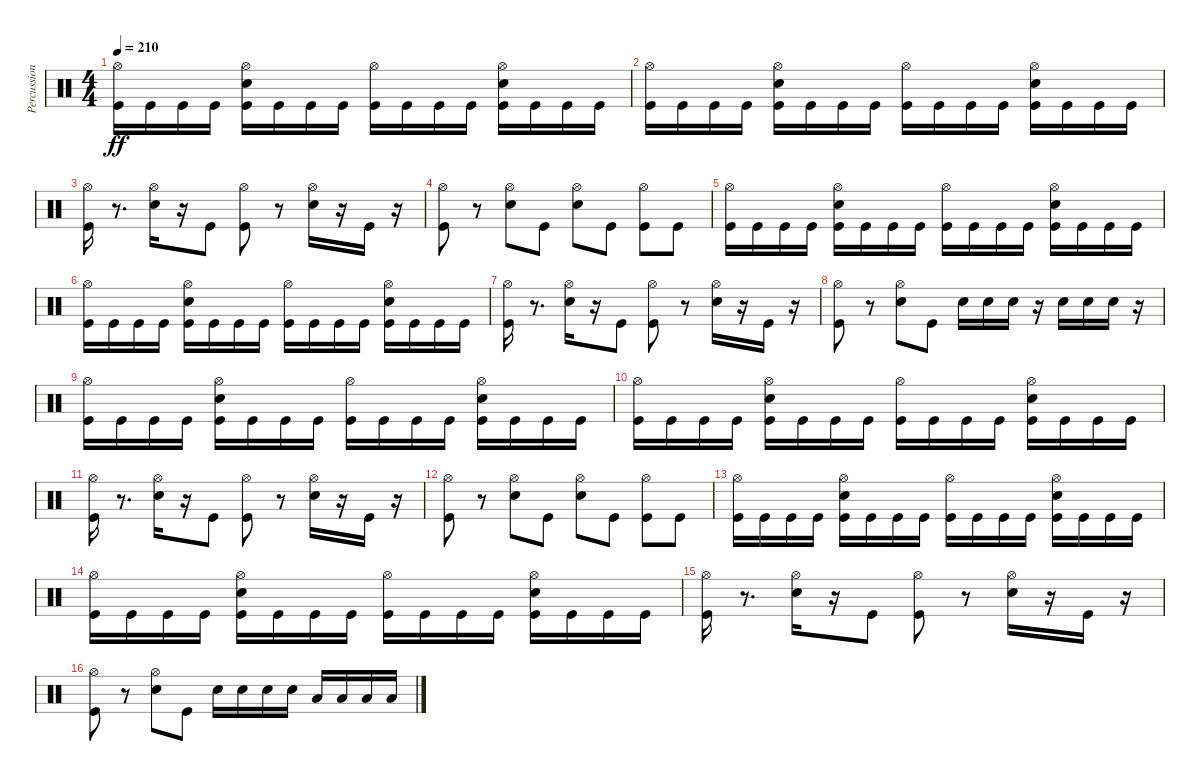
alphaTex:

\track ("Percussion" "Percussion") {instrument percussion}
\staff {score}
\articulation defaults
\ts (4 4)
\tempo 210
\clef neutral
\ks c
("Hi-Hat (open)" "Kick (hit)").16{dy ff} "Kick (hit)".16 "Kick (hit)".16 "Kick (hit)".16 ("Snare (hit) 2" "Hi-Hat (open)" "Kick (hit)").16 "Kick (hit)".16 "Kick (hit)".16 "Kick (hit)".16 ("Hi-Hat (open)" "Kick (hit)").16 "Kick (hit)".16 "Kick (hit)".16 "Kick (hit)".16 ("Snare (hit) 2" "Hi-Hat (open)" "Kick (hit)").16 "Kick (hit)".16 "Kick (hit)".16 "Kick (hit)".16 |
("Hi-Hat (open)" "Kick (hit)").16 "Kick (hit)".16 "Kick (hit)".16 "Kick (hit)".16 ("Snare (hit) 2" "Hi-Hat (open)" "Kick (hit)").16 "Kick (hit)".16 "Kick (hit)".16 "Kick (hit)".16 ("Hi-Hat (open)" "Kick (hit)").16 "Kick (hit)".16 "Kick (hit)".16 "Kick (hit)".16 ("Snare (hit) 2" "Hi-Hat (open)" "Kick (hit)").16 "Kick (hit)".16 "Kick (hit)".16 "Kick (hit)".16 |
("Hi-Hat (open)" "Kick (hit)").16 r.8{d} ("Hi-Hat (open)" "Snare (hit) 2").16 r.16 "Kick (hit)".8 ("Kick (hit)" "Hi-Hat (open)").8 r.8 ("Hi-Hat (open)" "Snare (hit) 2").16 r.16 "Kick (hit)".16 r.16 |
("Hi-Hat (open)" "Kick (hit)").8 r.8 ("Hi-Hat (open)" "Snare (hit) 2").8 "Kick (hit)".8 ("Hi-Hat (open)" "Snare (hit) 2").8 "Kick (hit)".8 ("Hi-Hat (open)" "Kick (hit)").8 "Kick (hit)".8 |
("Hi-Hat (open)" "Kick (hit)").16 "Kick (hit)".16 "Kick (hit)".16 "Kick (hit)".16 ("Snare (hit) 2" "Hi-Hat (open)" "Kick (hit)").16 "Kick (hit)".16 "Kick (hit)".16 "Kick (hit)".16 ("Hi-Hat (open)" "Kick (hit)").16 "Kick (hit)".16 "Kick (hit)".16 "Kick (hit)".16 ("Snare (hit) 2" "Hi-Hat (open)" "Kick (hit)").16 "Kick (hit)".16 "Kick (hit)".16 "Kick (hit)".16 |
("Hi-Hat (open)" "Kick (hit)").16 "Kick (hit)".16 "Kick (hit)".16 "Kick (hit)".16 ("Snare (hit) 2" "Hi-Hat (open)" "Kick (hit)").16 "Kick (hit)".16 "Kick (hit)".16 "Kick (hit)".16 ("Hi-Hat (open)" "Kick (hit)").16 "Kick (hit)".16 "Kick (hit)".16 "Kick (hit)".16 ("Snare (hit) 2" "Hi-Hat (open)" "Kick (hit)").16 "Kick (hit)".16 "Kick (hit)".16 "Kick (hit)".16 |
("Hi-Hat (open)" "Kick (hit)").16 r.8{d} ("Hi-Hat (open)" "Snare (hit) 2").16 r.16 "Kick (hit)".8 ("Kick (hit)" "Hi-Hat (open)").8 r.8 ("Hi-Hat (open)" "Snare (hit) 2").16 r.16 "Kick (hit)".16 r.16 |
("Hi-Hat (open)" "Kick (hit)").8 r.8 ("Hi-Hat (open)" "Snare (hit) 2").8 "Kick (hit)".8 "Snare (hit) 2".16 "Snare (hit) 2".16 "Snare (hit) 2".16 r.16 "Snare (hit) 2".16 "Snare (hit) 2".16 "Snare (hit) 2".16 r.16 |
("Hi-Hat (open)" "Kick (hit)").16 "Kick (hit)".16 "Kick (hit)".16 "Kick (hit)".16 ("Snare (hit) 2" "Hi-Hat (open)" "Kick (hit)").16 "Kick (hit)".16 "Kick (hit)".16 "Kick (hit)".16 ("Hi-Hat (open)" "Kick (hit)").16 "Kick (hit)".16 "Kick (hit)".16 "Kick (hit)".16 ("Snare (hit) 2" "Hi-Hat (open)" "Kick (hit)").16 "Kick (hit)".16 "Kick (hit)".16 "Kick (hit)".16 |
("Hi-Hat (open)" "Kick (hit)").16 "Kick (hit)".16 "Kick (hit)".16 "Kick (hit)".16 ("Snare (hit) 2" "Hi-Hat (open)" "Kick (hit)").16 "Kick (hit)".16 "Kick (hit)".16 "Kick (hit)".16 ("Hi-Hat (open)" "Kick (hit)").16 "Kick (hit)".16 "Kick (hit)".16 "Kick (hit)".16 ("Snare (hit) 2" "Hi-Hat (open)" "Kick (hit)").16 "Kick (hit)".16 "Kick (hit)".16 "Kick (hit)".16 |
("Hi-Hat (open)" "Kick (hit)").16 r.8{d} ("Hi-Hat (open)" "Snare (hit) 2").16 r.16 "Kick (hit)".8 ("Kick (hit)" "Hi-Hat (open)").8 r.8 ("Hi-Hat (open)" "Snare (hit) 2").16 r.16 "Kick (hit)".16 r.16 |
("Hi-Hat (open)" "Kick (hit)").8 r.8 ("Hi-Hat (open)" "Snare (hit) 2").8 "Kick (hit)".8 ("Hi-Hat (open)" "Snare (hit) 2").8 "Kick (hit)".8 ("Hi-Hat (open)" "Kick (hit)").8 "Kick (hit)".8 |
("Hi-Hat (open)" "Kick (hit)").16 "Kick (hit)".16 "Kick (hit)".16 "Kick (hit)".16 ("Snare (hit) 2" "Hi-Hat (open)" "Kick (hit)").16 "Kick (hit)".16 "Kick (hit)".16 "Kick (hit)".16 ("Hi-Hat (open)" "Kick (hit)").16 "Kick (hit)".16 "Kick (hit)".16 "Kick (hit)".16 ("Snare (hit) 2" "Hi-Hat (open)" "Kick (hit)").16 "Kick (hit)".16 "Kick (hit)".16 "Kick (hit)".16 |
("Hi-Hat (open)" "Kick (hit)").16 "Kick (hit)".16 "Kick (hit)".16 "Kick (hit)".16 ("Snare (hit) 2" "Hi-Hat (open)" "Kick (hit)").16 "Kick (hit)".16 "Kick (hit)".16 "Kick (hit)".16 ("Hi-Hat (open)" "Kick (hit)").16 "Kick (hit)".16 "Kick (hit)".16 "Kick (hit)".16 ("Snare (hit) 2" "Hi-Hat (open)" "Kick (hit)").16 "Kick (hit)".16 "Kick (hit)".16 "Kick (hit)".16 |
("Hi-Hat (open)" "Kick (hit)").16 r.8{d} ("Hi-Hat (open)" "Snare (hit) 2").16 r.16 "Kick (hit)".8 ("Kick (hit)" "Hi-Hat (open)").8 r.8 ("Hi-Hat (open)" "Snare (hit) 2").16 r.16 "Kick (hit)".16 r.16 |
("Hi-Hat (open)" "Kick (hit)").8 r.8 ("Hi-Hat (open)" "Snare (hit) 2").8 "Kick (hit)".8 "Snare (hit) 2".16 "Snare (hit) 2".16 "Snare (hit) 2".16 "Snare (hit) 2".16 "Low Floor Tom (hit)".16 "Low Floor Tom (hit)".16 "Low Floor Tom (hit)".16 "Low Floor Tom (hit)".16
